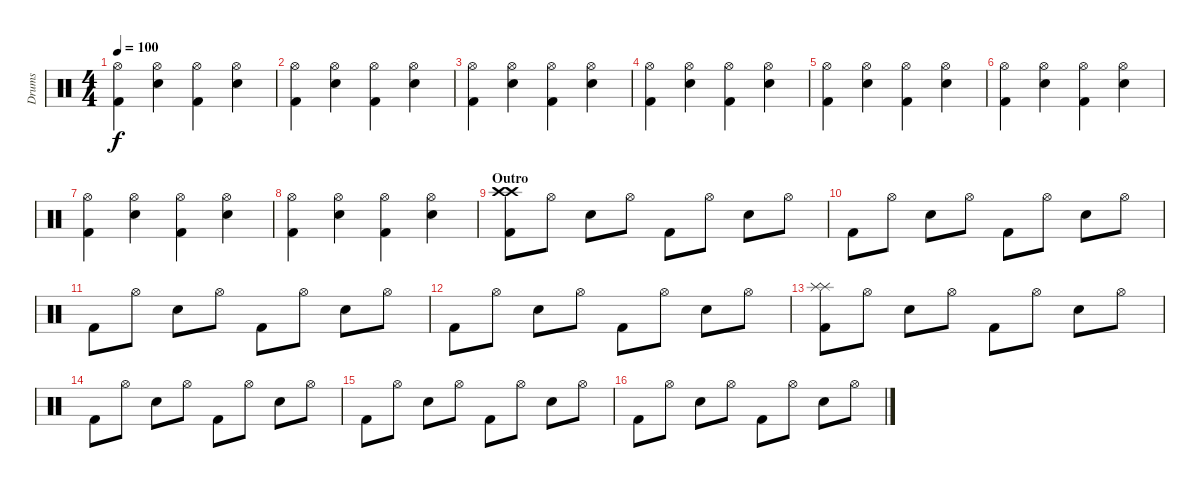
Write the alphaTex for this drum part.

\track ("Drums" "Drums") {instrument percussion}
\staff {score}
\articulation defaults
\ts (4 4)
\tempo 100
\clef neutral
\ks c
("Hi-Hat (open)" "Kick (hit) 2").4{dy f volume 14} ("Hi-Hat (open)" "Snare (hit) 2").4 ("Hi-Hat (open)" "Kick (hit) 2").4 ("Hi-Hat (open)" "Snare (hit) 2").4 |
("Hi-Hat (open)" "Kick (hit) 2").4 ("Hi-Hat (open)" "Snare (hit) 2").4 ("Hi-Hat (open)" "Kick (hit) 2").4 ("Hi-Hat (open)" "Snare (hit) 2").4 |
("Hi-Hat (open)" "Kick (hit) 2").4 ("Hi-Hat (open)" "Snare (hit) 2").4 ("Hi-Hat (open)" "Kick (hit) 2").4 ("Hi-Hat (open)" "Snare (hit) 2").4 |
("Hi-Hat (open)" "Kick (hit) 2").4 ("Hi-Hat (open)" "Snare (hit) 2").4 ("Hi-Hat (open)" "Kick (hit) 2").4 ("Hi-Hat (open)" "Snare (hit) 2").4 |
("Hi-Hat (open)" "Kick (hit) 2").4 ("Hi-Hat (open)" "Snare (hit) 2").4 ("Hi-Hat (open)" "Kick (hit) 2").4 ("Hi-Hat (open)" "Snare (hit) 2").4 |
("Hi-Hat (open)" "Kick (hit) 2").4 ("Hi-Hat (open)" "Snare (hit) 2").4 ("Hi-Hat (open)" "Kick (hit) 2").4 ("Hi-Hat (open)" "Snare (hit) 2").4 |
("Hi-Hat (open)" "Kick (hit) 2").4 ("Hi-Hat (open)" "Snare (hit) 2").4 ("Hi-Hat (open)" "Kick (hit) 2").4 ("Hi-Hat (open)" "Snare (hit) 2").4 |
("Hi-Hat (open)" "Kick (hit) 2").4 ("Hi-Hat (open)" "Snare (hit) 2").4 ("Hi-Hat (open)" "Kick (hit) 2").4 ("Hi-Hat (open)" "Snare (hit) 2").4 |
\section ("" "Outro")
("Crash high (hit)" "Crash high (hit)" "Kick (hit) 2").8 "Hi-Hat (open)".8 "Snare (hit) 2".8 "Hi-Hat (open)".8 "Kick (hit) 2".8 "Hi-Hat (open)".8 "Snare (hit) 2".8 "Hi-Hat (open)".8 |
"Kick (hit) 2".8 "Hi-Hat (open)".8 "Snare (hit) 2".8 "Hi-Hat (open)".8 "Kick (hit) 2".8 "Hi-Hat (open)".8 "Snare (hit) 2".8 "Hi-Hat (open)".8 |
"Kick (hit) 2".8 "Hi-Hat (open)".8 "Snare (hit) 2".8 "Hi-Hat (open)".8 "Kick (hit) 2".8 "Hi-Hat (open)".8 "Snare (hit) 2".8 "Hi-Hat (open)".8 |
"Kick (hit) 2".8 "Hi-Hat (open)".8 "Snare (hit) 2".8 "Hi-Hat (open)".8 "Kick (hit) 2".8 "Hi-Hat (open)".8 "Snare (hit) 2".8 "Hi-Hat (open)".8 |
("Splash (hit)" "Splash (hit)" "Kick (hit) 2").8 "Hi-Hat (open)".8 "Snare (hit) 2".8 "Hi-Hat (open)".8 "Kick (hit) 2".8 "Hi-Hat (open)".8 "Snare (hit) 2".8 "Hi-Hat (open)".8 |
"Kick (hit) 2".8 "Hi-Hat (open)".8 "Snare (hit) 2".8 "Hi-Hat (open)".8 "Kick (hit) 2".8 "Hi-Hat (open)".8 "Snare (hit) 2".8 "Hi-Hat (open)".8 |
"Kick (hit) 2".8 "Hi-Hat (open)".8 "Snare (hit) 2".8 "Hi-Hat (open)".8 "Kick (hit) 2".8 "Hi-Hat (open)".8 "Snare (hit) 2".8 "Hi-Hat (open)".8 |
"Kick (hit) 2".8 "Hi-Hat (open)".8 "Snare (hit) 2".8 "Hi-Hat (open)".8 "Kick (hit) 2".8 "Hi-Hat (open)".8 "Snare (hit) 2".8 "Hi-Hat (open)".8
